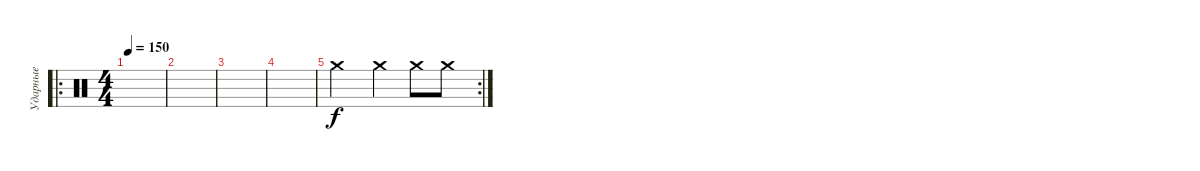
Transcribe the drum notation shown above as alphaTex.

\track ("Ударные" "Ударные") {instrument percussion}
\staff {score}
\articulation defaults
\ro
\ts (4 4)
\tempo 150
\clef neutral
\ks c
|
|
|
|
\rc 2 "Crash medium (hit)".2 "Crash medium (hit)".4 "Crash medium (hit)".8 "Crash medium (hit)".8
